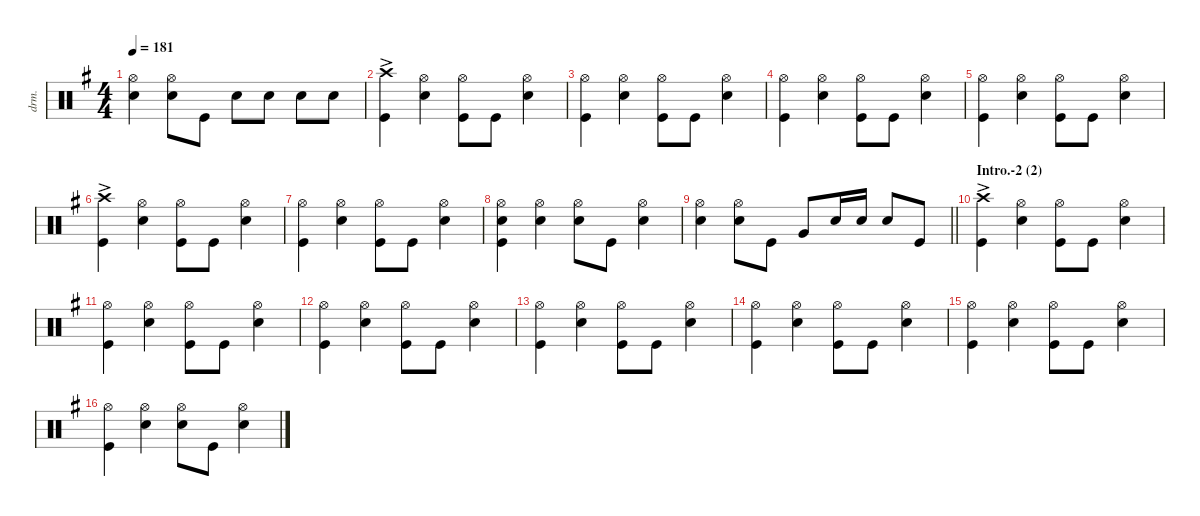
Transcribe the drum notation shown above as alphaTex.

\defaultSystemsLayout 4
\hideDynamics
\bracketExtendMode nobrackets
\track ("Drums" "drm.") {instrument percussion}
\staff {score}
\articulation defaults
\ts (4 4)
\tempo 181
\clef neutral
\ks g
("Hi-Hat (open)"{acc forcenatural} "Snare (hit) 2"{acc forcenatural}).4{dy f} ("Hi-Hat (open)"{acc forcenatural} "Snare (hit) 2"{acc forcenatural}).8 "Kick (hit)"{acc forcenatural}.8 "Snare (hit) 2"{acc forcenatural}.8 "Snare (hit) 2"{acc forcenatural}.8 "Snare (hit) 2"{acc forcenatural}.8 "Snare (hit) 2"{acc forcenatural}.8 |
("Kick (hit)"{acc forcenatural} "Crash high (hit)"{ac acc forcenatural}).4 ("Hi-Hat (open)"{acc forcenatural} "Snare (hit) 2"{acc forcenatural}).4 ("Kick (hit)"{acc forcenatural} "Hi-Hat (open)"{acc forcenatural}).8 "Kick (hit)"{acc forcenatural}.8 ("Snare (hit) 2"{acc forcenatural} "Hi-Hat (open)"{acc forcenatural}).4 |
("Kick (hit)"{acc forcenatural} "Hi-Hat (open)"{acc forcenatural}).4 ("Hi-Hat (open)"{acc forcenatural} "Snare (hit) 2"{acc forcenatural}).4 ("Kick (hit)"{acc forcenatural} "Hi-Hat (open)"{acc forcenatural}).8 "Kick (hit)"{acc forcenatural}.8 ("Snare (hit) 2"{acc forcenatural} "Hi-Hat (open)"{acc forcenatural}).4 |
("Kick (hit)"{acc forcenatural} "Hi-Hat (open)"{acc forcenatural}).4 ("Hi-Hat (open)"{acc forcenatural} "Snare (hit) 2"{acc forcenatural}).4 ("Kick (hit)"{acc forcenatural} "Hi-Hat (open)"{acc forcenatural}).8 "Kick (hit)"{acc forcenatural}.8 ("Snare (hit) 2"{acc forcenatural} "Hi-Hat (open)"{acc forcenatural}).4 |
("Kick (hit)"{acc forcenatural} "Hi-Hat (open)"{acc forcenatural}).4 ("Hi-Hat (open)"{acc forcenatural} "Snare (hit) 2"{acc forcenatural}).4 ("Kick (hit)"{acc forcenatural} "Hi-Hat (open)"{acc forcenatural}).8 "Kick (hit)"{acc forcenatural}.8 ("Snare (hit) 2"{acc forcenatural} "Hi-Hat (open)"{acc forcenatural}).4 |
("Kick (hit)"{acc forcenatural} "Crash high (hit)"{ac acc forcenatural}).4 ("Hi-Hat (open)"{acc forcenatural} "Snare (hit) 2"{acc forcenatural}).4 ("Kick (hit)"{acc forcenatural} "Hi-Hat (open)"{acc forcenatural}).8 "Kick (hit)"{acc forcenatural}.8 ("Snare (hit) 2"{acc forcenatural} "Hi-Hat (open)"{acc forcenatural}).4 |
("Kick (hit)"{acc forcenatural} "Hi-Hat (open)"{acc forcenatural}).4 ("Hi-Hat (open)"{acc forcenatural} "Snare (hit) 2"{acc forcenatural}).4 ("Kick (hit)"{acc forcenatural} "Hi-Hat (open)"{acc forcenatural}).8 "Kick (hit)"{acc forcenatural}.8 ("Snare (hit) 2"{acc forcenatural} "Hi-Hat (open)"{acc forcenatural}).4 |
("Kick (hit)"{acc forcenatural} "Hi-Hat (open)"{acc forcenatural} "Snare (hit) 2"{acc forcenatural}).4 ("Hi-Hat (open)"{acc forcenatural} "Snare (hit) 2"{acc forcenatural}).4 ("Hi-Hat (open)"{acc forcenatural} "Snare (hit) 2"{acc forcenatural}).8 "Kick (hit)"{acc forcenatural}.8 ("Snare (hit) 2"{acc forcenatural} "Hi-Hat (open)"{acc forcenatural}).4 |
\barLineRight lightlight
("Hi-Hat (open)"{acc forcenatural} "Snare (hit) 2"{acc forcenatural}).4 ("Hi-Hat (open)"{acc forcenatural} "Snare (hit) 2"{acc forcenatural}).8 "Kick (hit)"{acc forcenatural}.8 "Very Low Tom (hit)"{acc forcenatural}.8 "Snare (hit) 2"{acc forcenatural}.16 "Snare (hit) 2"{acc forcenatural}.16 "Snare (hit) 2"{acc forcenatural}.8 "Kick (hit)"{acc forcenatural}.8 |
\section ("" "Intro.-2 (2)")
("Kick (hit)"{acc forcenatural} "Crash high (hit)"{ac acc forcenatural}).4 ("Hi-Hat (open)"{acc forcenatural} "Snare (hit) 2"{acc forcenatural}).4 ("Kick (hit)"{acc forcenatural} "Hi-Hat (open)"{acc forcenatural}).8 "Kick (hit)"{acc forcenatural}.8 ("Snare (hit) 2"{acc forcenatural} "Hi-Hat (open)"{acc forcenatural}).4 |
("Kick (hit)"{acc forcenatural} "Hi-Hat (open)"{acc forcenatural}).4 ("Hi-Hat (open)"{acc forcenatural} "Snare (hit) 2"{acc forcenatural}).4 ("Kick (hit)"{acc forcenatural} "Hi-Hat (open)"{acc forcenatural}).8 "Kick (hit)"{acc forcenatural}.8 ("Snare (hit) 2"{acc forcenatural} "Hi-Hat (open)"{acc forcenatural}).4 |
("Kick (hit)"{acc forcenatural} "Hi-Hat (open)"{acc forcenatural}).4 ("Hi-Hat (open)"{acc forcenatural} "Snare (hit) 2"{acc forcenatural}).4 ("Kick (hit)"{acc forcenatural} "Hi-Hat (open)"{acc forcenatural}).8 "Kick (hit)"{acc forcenatural}.8 ("Snare (hit) 2"{acc forcenatural} "Hi-Hat (open)"{acc forcenatural}).4 |
("Kick (hit)"{acc forcenatural} "Hi-Hat (open)"{acc forcenatural}).4 ("Hi-Hat (open)"{acc forcenatural} "Snare (hit) 2"{acc forcenatural}).4 ("Kick (hit)"{acc forcenatural} "Hi-Hat (open)"{acc forcenatural}).8 "Kick (hit)"{acc forcenatural}.8 ("Snare (hit) 2"{acc forcenatural} "Hi-Hat (open)"{acc forcenatural}).4 |
("Kick (hit)"{acc forcenatural} "Hi-Hat (open)"{acc forcenatural}).4 ("Hi-Hat (open)"{acc forcenatural} "Snare (hit) 2"{acc forcenatural}).4 ("Kick (hit)"{acc forcenatural} "Hi-Hat (open)"{acc forcenatural}).8 "Kick (hit)"{acc forcenatural}.8 ("Snare (hit) 2"{acc forcenatural} "Hi-Hat (open)"{acc forcenatural}).4 |
("Kick (hit)"{acc forcenatural} "Hi-Hat (open)"{acc forcenatural}).4 ("Hi-Hat (open)"{acc forcenatural} "Snare (hit) 2"{acc forcenatural}).4 ("Kick (hit)"{acc forcenatural} "Hi-Hat (open)"{acc forcenatural}).8 "Kick (hit)"{acc forcenatural}.8 ("Snare (hit) 2"{acc forcenatural} "Hi-Hat (open)"{acc forcenatural}).4 |
("Kick (hit)"{acc forcenatural} "Hi-Hat (open)"{acc forcenatural}).4 ("Hi-Hat (open)"{acc forcenatural} "Snare (hit) 2"{acc forcenatural}).4 ("Snare (hit) 2"{acc forcenatural} "Hi-Hat (open)"{acc forcenatural}).8 "Kick (hit)"{acc forcenatural}.8 ("Snare (hit) 2"{acc forcenatural} "Hi-Hat (open)"{acc forcenatural}).4
